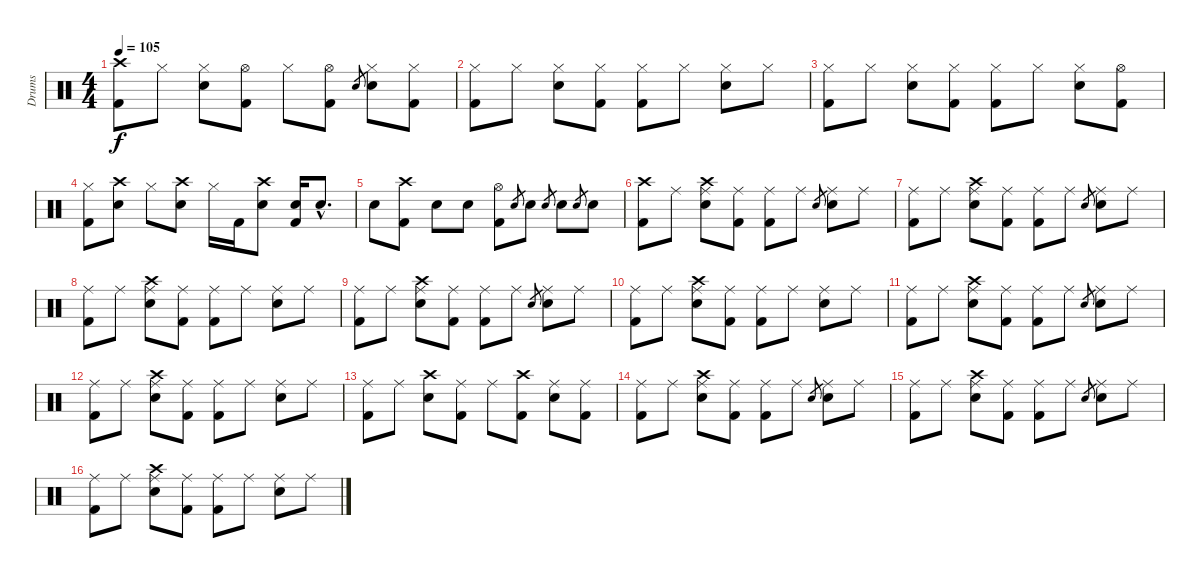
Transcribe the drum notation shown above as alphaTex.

\track ("Drums" "Drums") {instrument percussion}
\staff {score}
\articulation defaults
\ts (4 4)
\tempo 105
\clef neutral
\ks c
("Crash high (hit)" "Kick (hit) 2").8{dy f} "Hi-Hat (closed)".8 ("Hi-Hat (closed)" "Electric Snare (hit)").8 ("Hi-Hat (open)" "Kick (hit) 2").8 "Hi-Hat (closed)".8 ("Hi-Hat (open)" "Kick (hit) 2").8 "Electric Snare (hit)".8{gr} ("Hi-Hat (closed)" "Electric Snare (hit)").8 ("Hi-Hat (closed)" "Kick (hit) 2").8 |
("Hi-Hat (closed)" "Kick (hit) 2").8 "Hi-Hat (closed)".8 ("Hi-Hat (closed)" "Electric Snare (hit)").8 ("Hi-Hat (closed)" "Kick (hit) 2").8 ("Hi-Hat (closed)" "Kick (hit) 2").8 "Hi-Hat (closed)".8 ("Hi-Hat (closed)" "Electric Snare (hit)").8 "Hi-Hat (closed)".8 |
("Hi-Hat (closed)" "Kick (hit) 2").8 "Hi-Hat (closed)".8 ("Hi-Hat (closed)" "Electric Snare (hit)").8 ("Hi-Hat (closed)" "Kick (hit) 2").8 ("Hi-Hat (closed)" "Kick (hit) 2").8 "Hi-Hat (closed)".8 ("Hi-Hat (closed)" "Electric Snare (hit)").8 ("Hi-Hat (open)" "Kick (hit) 2").8 |
("Hi-Hat (closed)" "Kick (hit) 2").8 ("Crash high (hit)" "Electric Snare (hit)").8 "Hi-Hat (closed)".8 ("Crash high (hit)" "Electric Snare (hit)").8 "Hi-Hat (closed)".16 "Kick (hit) 2".16 ("Crash high (hit)" "Electric Snare (hit)").8 ("Electric Snare (hit)" "Kick (hit) 2").16 "Electric Snare (hit)"{hac}.8{d} |
"Electric Snare (hit)".8 ("Crash high (hit)" "Kick (hit) 2").8 "Electric Snare (hit)".8 "Electric Snare (hit)".8 ("Hi-Hat (open)" "Kick (hit) 2").8 "Electric Snare (hit)".8{gr} "Electric Snare (hit)".8 "Electric Snare (hit)".8{gr} "Electric Snare (hit)".8 "Electric Snare (hit)".8{gr} "Electric Snare (hit)".8 |
("Crash high (hit)" "Kick (hit) 2").8 "Ride (middle)".8 ("Crash high (hit)" "Ride (middle)" "Electric Snare (hit)").8 ("Ride (middle)" "Kick (hit) 2").8 ("Ride (middle)" "Kick (hit) 2").8 "Ride (middle)".8 "Electric Snare (hit)".8{gr} ("Ride (middle)" "Electric Snare (hit)").8 "Ride (middle)".8 |
("Ride (middle)" "Kick (hit) 2").8 "Ride (middle)".8 ("Crash high (hit)" "Ride (middle)" "Electric Snare (hit)").8 ("Ride (middle)" "Kick (hit) 2").8 ("Ride (middle)" "Kick (hit) 2").8 "Ride (middle)".8 "Electric Snare (hit)".8{gr} ("Ride (middle)" "Electric Snare (hit)").8 "Ride (middle)".8 |
("Ride (middle)" "Kick (hit) 2").8 "Ride (middle)".8 ("Crash high (hit)" "Ride (middle)" "Electric Snare (hit)").8 ("Ride (middle)" "Kick (hit) 2").8 ("Ride (middle)" "Kick (hit) 2").8 "Ride (middle)".8 ("Ride (middle)" "Electric Snare (hit)").8 "Ride (middle)".8 |
("Ride (middle)" "Kick (hit) 2").8 "Ride (middle)".8 ("Crash high (hit)" "Ride (middle)" "Electric Snare (hit)").8 ("Ride (middle)" "Kick (hit) 2").8 ("Ride (middle)" "Kick (hit) 2").8 "Ride (middle)".8 "Electric Snare (hit)".8{gr} ("Ride (middle)" "Electric Snare (hit)").8 "Ride (middle)".8 |
("Ride (middle)" "Kick (hit) 2").8 "Ride (middle)".8 ("Crash high (hit)" "Ride (middle)" "Electric Snare (hit)").8 ("Ride (middle)" "Kick (hit) 2").8 ("Ride (middle)" "Kick (hit) 2").8 "Ride (middle)".8 ("Ride (middle)" "Electric Snare (hit)").8 "Ride (middle)".8 |
("Ride (middle)" "Kick (hit) 2").8 "Ride (middle)".8 ("Crash high (hit)" "Ride (middle)" "Electric Snare (hit)").8 ("Ride (middle)" "Kick (hit) 2").8 ("Ride (middle)" "Kick (hit) 2").8 "Ride (middle)".8 "Electric Snare (hit)".8{gr} ("Ride (middle)" "Electric Snare (hit)").8 "Ride (middle)".8 |
("Ride (middle)" "Kick (hit) 2").8 "Ride (middle)".8 ("Crash high (hit)" "Ride (middle)" "Electric Snare (hit)").8 ("Ride (middle)" "Kick (hit) 2").8 ("Ride (middle)" "Kick (hit) 2").8 "Ride (middle)".8 ("Ride (middle)" "Electric Snare (hit)").8 "Ride (middle)".8 |
("Ride (middle)" "Kick (hit) 2").8 "Ride (middle)".8 ("Crash high (hit)" "Electric Snare (hit)").8 ("Ride (middle)" "Kick (hit) 2").8 "Ride (middle)".8 ("Crash high (hit)" "Kick (hit) 2").8 ("Ride (middle)" "Electric Snare (hit)").8 ("Ride (middle)" "Kick (hit) 2").8 |
("Ride (middle)" "Kick (hit) 2").8 "Ride (middle)".8 ("Crash high (hit)" "Ride (middle)" "Electric Snare (hit)").8 ("Ride (middle)" "Kick (hit) 2").8 ("Ride (middle)" "Kick (hit) 2").8 "Ride (middle)".8 "Electric Snare (hit)".8{gr} ("Ride (middle)" "Electric Snare (hit)").8 "Ride (middle)".8 |
("Ride (middle)" "Kick (hit) 2").8 "Ride (middle)".8 ("Crash high (hit)" "Ride (middle)" "Electric Snare (hit)").8 ("Ride (middle)" "Kick (hit) 2").8 ("Ride (middle)" "Kick (hit) 2").8 "Ride (middle)".8 "Electric Snare (hit)".8{gr} ("Ride (middle)" "Electric Snare (hit)").8 "Ride (middle)".8 |
("Ride (middle)" "Kick (hit) 2").8 "Ride (middle)".8 ("Crash high (hit)" "Ride (middle)" "Electric Snare (hit)").8 ("Ride (middle)" "Kick (hit) 2").8 ("Ride (middle)" "Kick (hit) 2").8 "Ride (middle)".8 ("Ride (middle)" "Electric Snare (hit)").8 "Ride (middle)".8
